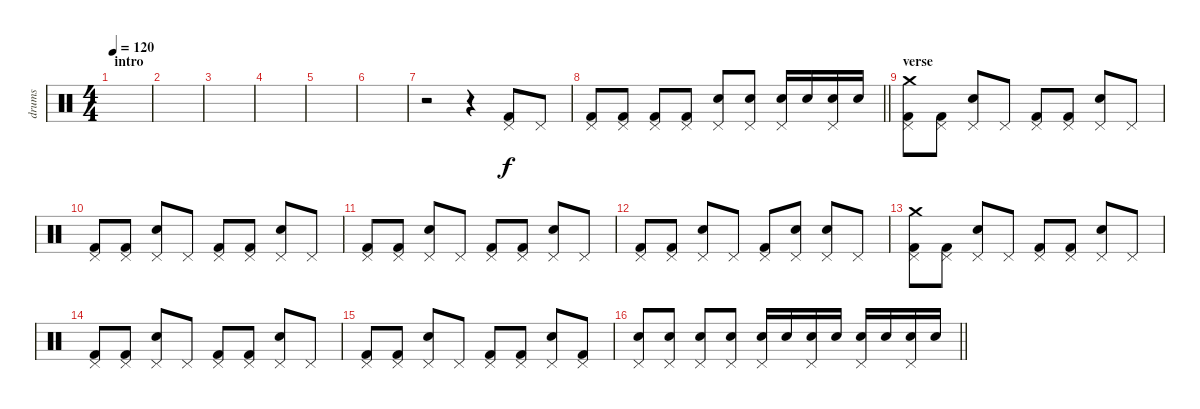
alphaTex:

\track ("drums" "drums") {instrument percussion}
\staff {score}
\articulation defaults
\ts (4 4)
\section ("" "intro")
\tempo 120
\clef neutral
\ks c
|
|
|
|
|
|
r.2 r.4 ("Pedal Hi-Hat (hit)" "Kick (hit) 2").8 "Pedal Hi-Hat (hit)".8 |
\barLineRight lightlight
("Pedal Hi-Hat (hit)" "Kick (hit) 2").8 ("Pedal Hi-Hat (hit)" "Kick (hit) 2").8 ("Pedal Hi-Hat (hit)" "Kick (hit) 2").8 ("Pedal Hi-Hat (hit)" "Kick (hit) 2").8 ("Pedal Hi-Hat (hit)" "Snare (hit) 2").8 ("Pedal Hi-Hat (hit)" "Snare (hit) 2").8 ("Pedal Hi-Hat (hit)" "Snare (hit) 2").16 "Snare (hit) 2".16 ("Pedal Hi-Hat (hit)" "Snare (hit) 2").16 "Snare (hit) 2".16 |
\section ("" "verse")
("Pedal Hi-Hat (hit)" "Crash medium (hit)" "Kick (hit) 2").8 ("Pedal Hi-Hat (hit)" "Kick (hit) 2").8 ("Pedal Hi-Hat (hit)" "Snare (hit) 2").8 "Pedal Hi-Hat (hit)".8 ("Pedal Hi-Hat (hit)" "Kick (hit) 2").8 ("Pedal Hi-Hat (hit)" "Kick (hit) 2").8 ("Pedal Hi-Hat (hit)" "Snare (hit) 2").8 "Pedal Hi-Hat (hit)".8 |
("Pedal Hi-Hat (hit)" "Kick (hit) 2").8 ("Pedal Hi-Hat (hit)" "Kick (hit) 2").8 ("Pedal Hi-Hat (hit)" "Snare (hit) 2").8 "Pedal Hi-Hat (hit)".8 ("Pedal Hi-Hat (hit)" "Kick (hit) 2").8 ("Pedal Hi-Hat (hit)" "Kick (hit) 2").8 ("Pedal Hi-Hat (hit)" "Snare (hit) 2").8 "Pedal Hi-Hat (hit)".8 |
("Pedal Hi-Hat (hit)" "Kick (hit) 2").8 ("Pedal Hi-Hat (hit)" "Kick (hit) 2").8 ("Pedal Hi-Hat (hit)" "Snare (hit) 2").8 "Pedal Hi-Hat (hit)".8 ("Pedal Hi-Hat (hit)" "Kick (hit) 2").8 ("Pedal Hi-Hat (hit)" "Kick (hit) 2").8 ("Pedal Hi-Hat (hit)" "Snare (hit) 2").8 "Pedal Hi-Hat (hit)".8 |
("Pedal Hi-Hat (hit)" "Kick (hit) 2").8 ("Pedal Hi-Hat (hit)" "Kick (hit) 2").8 ("Pedal Hi-Hat (hit)" "Snare (hit) 2").8 "Pedal Hi-Hat (hit)".8 ("Pedal Hi-Hat (hit)" "Kick (hit) 2").8 ("Pedal Hi-Hat (hit)" "Snare (hit) 2").8 ("Pedal Hi-Hat (hit)" "Snare (hit) 2").8 "Pedal Hi-Hat (hit)".8 |
("Pedal Hi-Hat (hit)" "Crash medium (hit)" "Kick (hit) 2").8 ("Pedal Hi-Hat (hit)" "Kick (hit) 2").8 ("Pedal Hi-Hat (hit)" "Snare (hit) 2").8 "Pedal Hi-Hat (hit)".8 ("Pedal Hi-Hat (hit)" "Kick (hit) 2").8 ("Pedal Hi-Hat (hit)" "Kick (hit) 2").8 ("Pedal Hi-Hat (hit)" "Snare (hit) 2").8 "Pedal Hi-Hat (hit)".8 |
("Pedal Hi-Hat (hit)" "Kick (hit) 2").8 ("Pedal Hi-Hat (hit)" "Kick (hit) 2").8 ("Pedal Hi-Hat (hit)" "Snare (hit) 2").8 "Pedal Hi-Hat (hit)".8 ("Pedal Hi-Hat (hit)" "Kick (hit) 2").8 ("Pedal Hi-Hat (hit)" "Kick (hit) 2").8 ("Pedal Hi-Hat (hit)" "Snare (hit) 2").8 "Pedal Hi-Hat (hit)".8 |
("Pedal Hi-Hat (hit)" "Kick (hit) 2").8 ("Pedal Hi-Hat (hit)" "Kick (hit) 2").8 ("Pedal Hi-Hat (hit)" "Snare (hit) 2").8 "Pedal Hi-Hat (hit)".8 ("Pedal Hi-Hat (hit)" "Kick (hit) 2").8 ("Pedal Hi-Hat (hit)" "Kick (hit) 2").8 ("Pedal Hi-Hat (hit)" "Snare (hit) 2").8 ("Pedal Hi-Hat (hit)" "Kick (hit) 2").8 |
\barLineRight lightlight
("Pedal Hi-Hat (hit)" "Snare (hit) 2").8 ("Pedal Hi-Hat (hit)" "Snare (hit) 2").8 ("Pedal Hi-Hat (hit)" "Snare (hit) 2").8 ("Pedal Hi-Hat (hit)" "Snare (hit) 2").8 ("Pedal Hi-Hat (hit)" "Snare (hit) 2").16 "Snare (hit) 2".16 ("Pedal Hi-Hat (hit)" "Snare (hit) 2").16 "Snare (hit) 2".16 ("Pedal Hi-Hat (hit)" "Snare (hit) 2").16 "Snare (hit) 2".16 ("Pedal Hi-Hat (hit)" "Snare (hit) 2").16 "Snare (hit) 2".16
